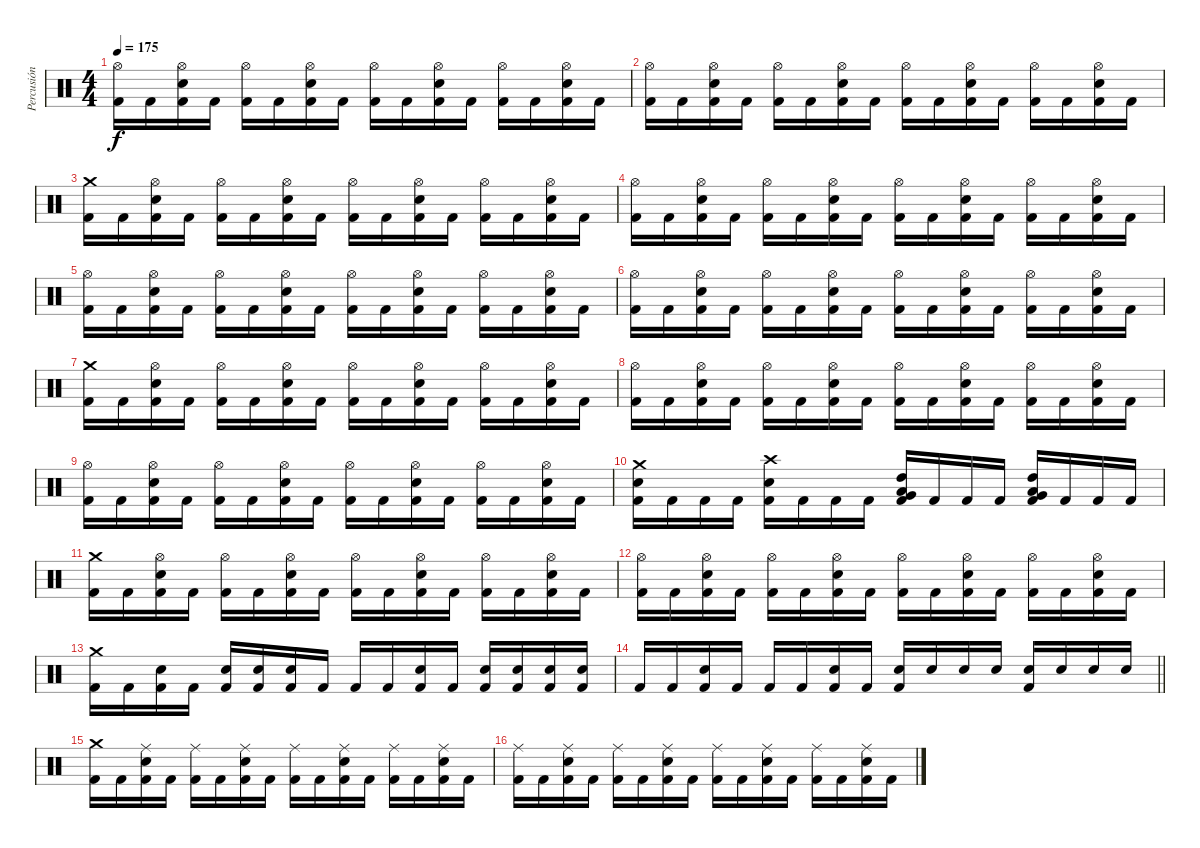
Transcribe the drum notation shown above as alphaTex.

\track ("Percusión" "Percusión") {instrument percussion}
\staff {score}
\articulation defaults
\ts (4 4)
\tempo 175
\clef neutral
\ks c
("Hi-Hat (open)" "Kick (hit) 2").16{dy f} "Kick (hit) 2".16 ("Hi-Hat (open)" "Electric Snare (hit)" "Kick (hit) 2").16 "Kick (hit) 2".16 ("Hi-Hat (open)" "Kick (hit) 2").16 "Kick (hit) 2".16 ("Hi-Hat (open)" "Electric Snare (hit)" "Kick (hit) 2").16 "Kick (hit) 2".16 ("Hi-Hat (open)" "Kick (hit) 2").16 "Kick (hit) 2".16 ("Hi-Hat (open)" "Electric Snare (hit)" "Kick (hit) 2").16 "Kick (hit) 2".16 ("Hi-Hat (open)" "Kick (hit) 2").16 "Kick (hit) 2".16 ("Hi-Hat (open)" "Electric Snare (hit)" "Kick (hit) 2").16 "Kick (hit) 2".16 |
("Hi-Hat (open)" "Kick (hit) 2").16 "Kick (hit) 2".16 ("Hi-Hat (open)" "Electric Snare (hit)" "Kick (hit) 2").16 "Kick (hit) 2".16 ("Hi-Hat (open)" "Kick (hit) 2").16 "Kick (hit) 2".16 ("Hi-Hat (open)" "Electric Snare (hit)" "Kick (hit) 2").16 "Kick (hit) 2".16 ("Hi-Hat (open)" "Kick (hit) 2").16 "Kick (hit) 2".16 ("Hi-Hat (open)" "Electric Snare (hit)" "Kick (hit) 2").16 "Kick (hit) 2".16 ("Hi-Hat (open)" "Kick (hit) 2").16 "Kick (hit) 2".16 ("Hi-Hat (open)" "Electric Snare (hit)" "Kick (hit) 2").16 "Kick (hit) 2".16 |
("Crash medium (hit)" "Kick (hit) 2").16 "Kick (hit) 2".16 ("Hi-Hat (open)" "Electric Snare (hit)" "Kick (hit) 2").16 "Kick (hit) 2".16 ("Hi-Hat (open)" "Kick (hit) 2").16 "Kick (hit) 2".16 ("Hi-Hat (open)" "Electric Snare (hit)" "Kick (hit) 2").16 "Kick (hit) 2".16 ("Hi-Hat (open)" "Kick (hit) 2").16 "Kick (hit) 2".16 ("Hi-Hat (open)" "Electric Snare (hit)" "Kick (hit) 2").16 "Kick (hit) 2".16 ("Hi-Hat (open)" "Kick (hit) 2").16 "Kick (hit) 2".16 ("Hi-Hat (open)" "Electric Snare (hit)" "Kick (hit) 2").16 "Kick (hit) 2".16 |
("Hi-Hat (open)" "Kick (hit) 2").16 "Kick (hit) 2".16 ("Hi-Hat (open)" "Electric Snare (hit)" "Kick (hit) 2").16 "Kick (hit) 2".16 ("Hi-Hat (open)" "Kick (hit) 2").16 "Kick (hit) 2".16 ("Hi-Hat (open)" "Electric Snare (hit)" "Kick (hit) 2").16 "Kick (hit) 2".16 ("Hi-Hat (open)" "Kick (hit) 2").16 "Kick (hit) 2".16 ("Hi-Hat (open)" "Electric Snare (hit)" "Kick (hit) 2").16 "Kick (hit) 2".16 ("Hi-Hat (open)" "Kick (hit) 2").16 "Kick (hit) 2".16 ("Hi-Hat (open)" "Electric Snare (hit)" "Kick (hit) 2").16 "Kick (hit) 2".16 |
("Hi-Hat (open)" "Kick (hit) 2").16 "Kick (hit) 2".16 ("Hi-Hat (open)" "Electric Snare (hit)" "Kick (hit) 2").16 "Kick (hit) 2".16 ("Hi-Hat (open)" "Kick (hit) 2").16 "Kick (hit) 2".16 ("Hi-Hat (open)" "Electric Snare (hit)" "Kick (hit) 2").16 "Kick (hit) 2".16 ("Hi-Hat (open)" "Kick (hit) 2").16 "Kick (hit) 2".16 ("Hi-Hat (open)" "Electric Snare (hit)" "Kick (hit) 2").16 "Kick (hit) 2".16 ("Hi-Hat (open)" "Kick (hit) 2").16 "Kick (hit) 2".16 ("Hi-Hat (open)" "Electric Snare (hit)" "Kick (hit) 2").16 "Kick (hit) 2".16 |
("Hi-Hat (open)" "Kick (hit) 2").16 "Kick (hit) 2".16 ("Hi-Hat (open)" "Electric Snare (hit)" "Kick (hit) 2").16 "Kick (hit) 2".16 ("Hi-Hat (open)" "Kick (hit) 2").16 "Kick (hit) 2".16 ("Hi-Hat (open)" "Electric Snare (hit)" "Kick (hit) 2").16 "Kick (hit) 2".16 ("Hi-Hat (open)" "Kick (hit) 2").16 "Kick (hit) 2".16 ("Hi-Hat (open)" "Electric Snare (hit)" "Kick (hit) 2").16 "Kick (hit) 2".16 ("Hi-Hat (open)" "Kick (hit) 2").16 "Kick (hit) 2".16 ("Hi-Hat (open)" "Electric Snare (hit)" "Kick (hit) 2").16 "Kick (hit) 2".16 |
("Crash medium (hit)" "Kick (hit) 2").16 "Kick (hit) 2".16 ("Hi-Hat (open)" "Electric Snare (hit)" "Kick (hit) 2").16 "Kick (hit) 2".16 ("Hi-Hat (open)" "Kick (hit) 2").16 "Kick (hit) 2".16 ("Hi-Hat (open)" "Electric Snare (hit)" "Kick (hit) 2").16 "Kick (hit) 2".16 ("Hi-Hat (open)" "Kick (hit) 2").16 "Kick (hit) 2".16 ("Hi-Hat (open)" "Electric Snare (hit)" "Kick (hit) 2").16 "Kick (hit) 2".16 ("Hi-Hat (open)" "Kick (hit) 2").16 "Kick (hit) 2".16 ("Hi-Hat (open)" "Electric Snare (hit)" "Kick (hit) 2").16 "Kick (hit) 2".16 |
("Hi-Hat (open)" "Kick (hit) 2").16 "Kick (hit) 2".16 ("Hi-Hat (open)" "Electric Snare (hit)" "Kick (hit) 2").16 "Kick (hit) 2".16 ("Hi-Hat (open)" "Kick (hit) 2").16 "Kick (hit) 2".16 ("Hi-Hat (open)" "Electric Snare (hit)" "Kick (hit) 2").16 "Kick (hit) 2".16 ("Hi-Hat (open)" "Kick (hit) 2").16 "Kick (hit) 2".16 ("Hi-Hat (open)" "Electric Snare (hit)" "Kick (hit) 2").16 "Kick (hit) 2".16 ("Hi-Hat (open)" "Kick (hit) 2").16 "Kick (hit) 2".16 ("Hi-Hat (open)" "Electric Snare (hit)" "Kick (hit) 2").16 "Kick (hit) 2".16 |
("Hi-Hat (open)" "Kick (hit) 2").16 "Kick (hit) 2".16 ("Hi-Hat (open)" "Electric Snare (hit)" "Kick (hit) 2").16 "Kick (hit) 2".16 ("Hi-Hat (open)" "Kick (hit) 2").16 "Kick (hit) 2".16 ("Hi-Hat (open)" "Electric Snare (hit)" "Kick (hit) 2").16 "Kick (hit) 2".16 ("Hi-Hat (open)" "Kick (hit) 2").16 "Kick (hit) 2".16 ("Hi-Hat (open)" "Electric Snare (hit)" "Kick (hit) 2").16 "Kick (hit) 2".16 ("Hi-Hat (open)" "Kick (hit) 2").16 "Kick (hit) 2".16 ("Hi-Hat (open)" "Electric Snare (hit)" "Kick (hit) 2").16 "Kick (hit) 2".16 |
("Crash medium (hit)" "Electric Snare (hit)" "Kick (hit) 2").16 "Kick (hit) 2".16 "Kick (hit) 2".16 "Kick (hit) 2".16 ("Crash high (hit)" "Electric Snare (hit)" "Kick (hit) 2").16 "Kick (hit) 2".16 "Kick (hit) 2".16 "Kick (hit) 2".16 ("High Tom (hit)" "Very Low Tom (hit)" "Low Tom (hit)" "Kick (hit) 2").16 "Kick (hit) 2".16 "Kick (hit) 2".16 "Kick (hit) 2".16 ("High Tom (hit)" "Very Low Tom (hit)" "Low Floor Tom (hit)" "Kick (hit) 2").16 "Kick (hit) 2".16 "Kick (hit) 2".16 "Kick (hit) 2".16 |
("Crash medium (hit)" "Kick (hit) 2").16 "Kick (hit) 2".16 ("Hi-Hat (open)" "Electric Snare (hit)" "Kick (hit) 2").16 "Kick (hit) 2".16 ("Hi-Hat (open)" "Kick (hit) 2").16 "Kick (hit) 2".16 ("Hi-Hat (open)" "Electric Snare (hit)" "Kick (hit) 2").16 "Kick (hit) 2".16 ("Hi-Hat (open)" "Kick (hit) 2").16 "Kick (hit) 2".16 ("Hi-Hat (open)" "Electric Snare (hit)" "Kick (hit) 2").16 "Kick (hit) 2".16 ("Hi-Hat (open)" "Kick (hit) 2").16 "Kick (hit) 2".16 ("Hi-Hat (open)" "Electric Snare (hit)" "Kick (hit) 2").16 "Kick (hit) 2".16 |
("Hi-Hat (open)" "Kick (hit) 2").16 "Kick (hit) 2".16 ("Hi-Hat (open)" "Electric Snare (hit)" "Kick (hit) 2").16 "Kick (hit) 2".16 ("Hi-Hat (open)" "Kick (hit) 2").16 "Kick (hit) 2".16 ("Hi-Hat (open)" "Electric Snare (hit)" "Kick (hit) 2").16 "Kick (hit) 2".16 ("Hi-Hat (open)" "Kick (hit) 2").16 "Kick (hit) 2".16 ("Hi-Hat (open)" "Electric Snare (hit)" "Kick (hit) 2").16 "Kick (hit) 2".16 ("Hi-Hat (open)" "Kick (hit) 2").16 "Kick (hit) 2".16 ("Hi-Hat (open)" "Electric Snare (hit)" "Kick (hit) 2").16 "Kick (hit) 2".16 |
("Crash medium (hit)" "Kick (hit) 2").16 "Kick (hit) 2".16 ("Electric Snare (hit)" "Kick (hit) 2").16 "Kick (hit) 2".16 ("Electric Snare (hit)" "Kick (hit) 2").16 ("Electric Snare (hit)" "Kick (hit) 2").16 ("Electric Snare (hit)" "Kick (hit) 2").16 "Kick (hit) 2".16 "Kick (hit) 2".16 "Kick (hit) 2".16 ("Electric Snare (hit)" "Kick (hit) 2").16 "Kick (hit) 2".16 ("Electric Snare (hit)" "Kick (hit) 2").16 ("Electric Snare (hit)" "Kick (hit) 2").16 ("Electric Snare (hit)" "Kick (hit) 2").16 ("Electric Snare (hit)" "Kick (hit) 2").16 |
\barLineRight lightlight "Kick (hit) 2".16 "Kick (hit) 2".16
("Electric Snare (hit)" "Kick (hit) 2").16 "Kick (hit) 2".16 "Kick (hit) 2".16 "Kick (hit) 2".16 ("Electric Snare (hit)" "Kick (hit) 2").16 "Kick (hit) 2".16 ("Electric Snare (hit)" "Kick (hit) 2").16 "Electric Snare (hit)".16 "Electric Snare (hit)".16 "Electric Snare (hit)".16 ("Electric Snare (hit)" "Kick (hit) 2").16 "Electric Snare (hit)".16 "Electric Snare (hit)".16 "Electric Snare (hit)".16 |
("Crash medium (hit)" "Kick (hit) 2").16 "Kick (hit) 2".16 ("Ride (middle)" "Electric Snare (hit)" "Kick (hit) 2").16 "Kick (hit) 2".16 ("Ride (middle)" "Kick (hit) 2").16 "Kick (hit) 2".16 ("Ride (middle)" "Electric Snare (hit)" "Kick (hit) 2").16 "Kick (hit) 2".16 ("Ride (middle)" "Kick (hit) 2").16 "Kick (hit) 2".16 ("Ride (middle)" "Electric Snare (hit)" "Kick (hit) 2").16 "Kick (hit) 2".16 ("Ride (middle)" "Kick (hit) 2").16 "Kick (hit) 2".16 ("Ride (middle)" "Electric Snare (hit)" "Kick (hit) 2").16 "Kick (hit) 2".16 |
("Ride (middle)" "Kick (hit) 2").16 "Kick (hit) 2".16 ("Ride (middle)" "Electric Snare (hit)" "Kick (hit) 2").16 "Kick (hit) 2".16 ("Ride (middle)" "Kick (hit) 2").16 "Kick (hit) 2".16 ("Ride (middle)" "Electric Snare (hit)" "Kick (hit) 2").16 "Kick (hit) 2".16 ("Ride (middle)" "Kick (hit) 2").16 "Kick (hit) 2".16 ("Ride (middle)" "Electric Snare (hit)" "Kick (hit) 2").16 "Kick (hit) 2".16 ("Ride (middle)" "Kick (hit) 2").16 "Kick (hit) 2".16 ("Ride (middle)" "Electric Snare (hit)" "Kick (hit) 2").16 "Kick (hit) 2".16
